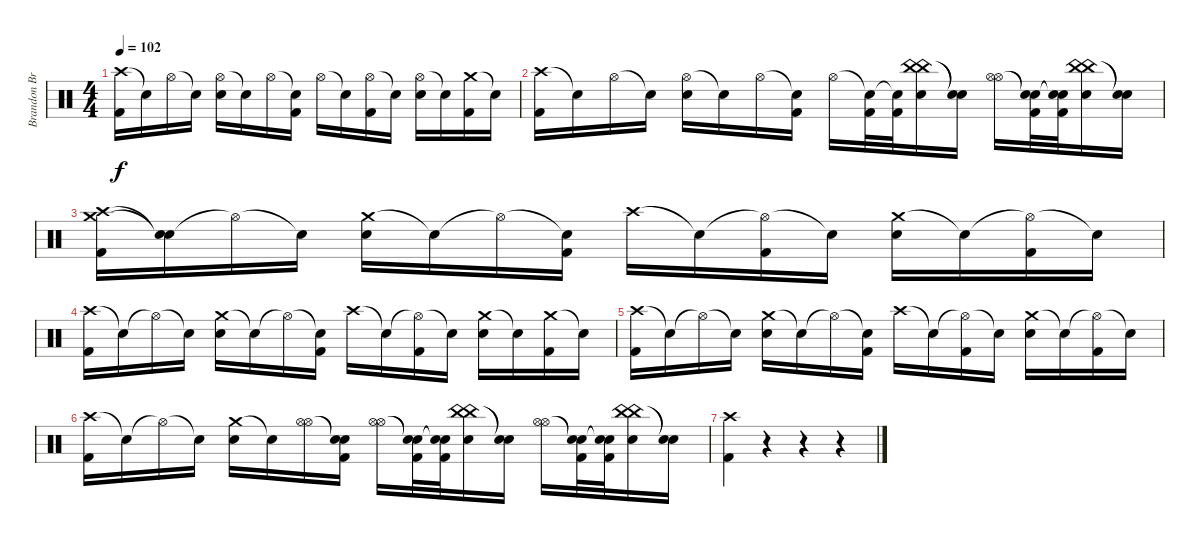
\track ("Brandon Brown (Drums)" "Brandon Br") {instrument percussion}
\staff {score}
\articulation defaults
\ts (4 4)
\tempo 102
\clef neutral
\ks c
("Crash high (hit)" "Kick (hit) 2").16{dy f} "Snare (hit)"{t}.16 "Hi-Hat (open)".16 "Snare (hit)"{t}.16 ("Hi-Hat (open)" "Electric Snare (hit)").16 "Snare (hit)"{t}.16 "Hi-Hat (open)".16 ("Snare (hit)"{t} "Kick (hit) 2").16 "Hi-Hat (open)".16 "Snare (hit)"{t}.16 ("Hi-Hat (open)" "Kick (hit) 2").16 "Snare (hit)"{t}.16 ("Hi-Hat (open)" "Electric Snare (hit)").16 "Snare (hit)"{t}.16 ("Crash medium (hit)" "Kick (hit) 2").16 "Snare (hit)"{t}.16 |
("Crash high (hit)" "Kick (hit) 2").16 "Snare (hit)"{t}.16 "Hi-Hat (open)".16 "Snare (hit)"{t}.16 ("Hi-Hat (open)" "Electric Snare (hit)").16 "Snare (hit)"{t}.16 "Hi-Hat (open)".16 ("Snare (hit)"{t} "Kick (hit) 2").16 "Hi-Hat (open)".16 ("Snare (hit)"{t} "Kick (hit) 2").32 ("Snare (hit)"{t} "Kick (hit) 2").32 ("China (hit)" "China (hit)" "Electric Snare (hit)").16 ("Snare (hit)"{t} "Snare (hit)"{t}).16 ("Hi-Hat (open)" "Hi-Hat (open)").16 ("Snare (hit)"{t} "Snare (hit)"{t} "Kick (hit) 2").32 ("Snare (hit)"{t} "Snare (hit)"{t} "Kick (hit) 2").32 ("China (hit)" "China (hit)" "Electric Snare (hit)").16 ("Snare (hit)"{t} "Snare (hit)"{t}).16 |
("Crash high (hit)" "Crash medium (hit)" "Kick (hit) 2").16 ("Snare (hit)"{t} "Snare (hit)"{t}).16 "Hi-Hat (open)"{t}.16 "Snare (hit)"{t}.16 ("Crash medium (hit)" "Electric Snare (hit)").16 "Snare (hit)"{t}.16 "Hi-Hat (open)"{t}.16 ("Snare (hit)"{t} "Kick (hit) 2").16 "Crash high (hit)".16 "Snare (hit)"{t}.16 ("Hi-Hat (open)"{t} "Kick (hit) 2").16 "Snare (hit)"{t}.16 ("Crash medium (hit)" "Electric Snare (hit)").16 "Snare (hit)"{t}.16 ("Hi-Hat (open)"{t} "Kick (hit) 2").16 "Snare (hit)"{t}.16 |
("Crash high (hit)" "Kick (hit) 2").16 "Snare (hit)"{t}.16 "Hi-Hat (open)"{t}.16 "Snare (hit)"{t}.16 ("Crash medium (hit)" "Electric Snare (hit)").16 "Snare (hit)"{t}.16 "Hi-Hat (open)"{t}.16 ("Snare (hit)"{t} "Kick (hit) 2").16 "Crash high (hit)".16 "Snare (hit)"{t}.16 ("Hi-Hat (open)"{t} "Kick (hit) 2").16 "Snare (hit)"{t}.16 ("Crash medium (hit)" "Electric Snare (hit)").16 "Snare (hit)"{t}.16 ("Crash medium (hit)" "Kick (hit) 2").16 "Snare (hit)"{t}.16 |
("Crash high (hit)" "Kick (hit) 2").16 "Snare (hit)"{t}.16 "Hi-Hat (open)"{t}.16 "Snare (hit)"{t}.16 ("Crash medium (hit)" "Electric Snare (hit)").16 "Snare (hit)"{t}.16 "Hi-Hat (open)"{t}.16 ("Snare (hit)"{t} "Kick (hit) 2").16 "Crash high (hit)".16 "Snare (hit)"{t}.16 ("Hi-Hat (open)"{t} "Kick (hit) 2").16 "Snare (hit)"{t}.16 ("Crash medium (hit)" "Electric Snare (hit)").16 "Snare (hit)"{t}.16 ("Hi-Hat (open)"{t} "Kick (hit) 2").16 "Snare (hit)"{t}.16 |
("Crash high (hit)" "Kick (hit) 2").16 "Snare (hit)"{t}.16 "Hi-Hat (open)"{t}.16 "Snare (hit)"{t}.16 ("Crash medium (hit)" "Electric Snare (hit)").16 "Snare (hit)"{t}.16 ("Hi-Hat (open)" "Hi-Hat (open)").16 ("Snare (hit)"{t} "Snare (hit)"{t} "Kick (hit) 2").16 ("Hi-Hat (open)" "Hi-Hat (open)").16 ("Snare (hit)"{t} "Snare (hit)"{t} "Kick (hit) 2").32 ("Snare (hit)"{t} "Snare (hit)"{t} "Kick (hit) 2").32 ("China (hit)" "China (hit)" "Electric Snare (hit)").16 ("Snare (hit)"{t} "Snare (hit)"{t}).16 ("Hi-Hat (open)" "Hi-Hat (open)").16 ("Snare (hit)"{t} "Snare (hit)"{t} "Kick (hit) 2").32 ("Snare (hit)"{t} "Snare (hit)"{t} "Kick (hit) 2").32 ("China (hit)" "China (hit)" "Electric Snare (hit)").16 ("Snare (hit)"{t} "Snare (hit)"{t}).16 |
("Crash high (hit)" "Kick (hit) 2").4 r.4 r.4 r.4
